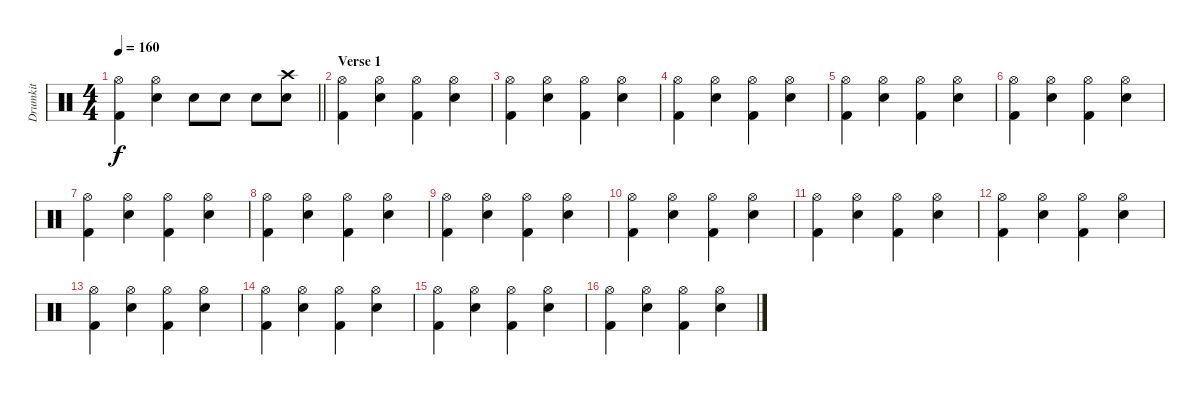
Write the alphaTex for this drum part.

\track ("Drumkit" "Drumkit") {instrument percussion}
\staff {score}
\articulation defaults
\ts (4 4)
\tempo 160
\clef neutral
\barLineRight lightlight
\ks c
("Hi-Hat (open)" "Kick (hit) 2").4{dy f} ("Hi-Hat (open)" "Electric Snare (hit)").4 "Electric Snare (hit)".8 "Electric Snare (hit)".8 "Electric Snare (hit)".8 ("Crash high (hit)" "Electric Snare (hit)").8 |
\section ("" "Verse 1")
("Hi-Hat (open)" "Kick (hit) 2").4 ("Hi-Hat (open)" "Electric Snare (hit)").4 ("Hi-Hat (open)" "Kick (hit) 2").4 ("Hi-Hat (open)" "Electric Snare (hit)").4 |
("Hi-Hat (open)" "Kick (hit) 2").4 ("Hi-Hat (open)" "Electric Snare (hit)").4 ("Hi-Hat (open)" "Kick (hit) 2").4 ("Hi-Hat (open)" "Electric Snare (hit)").4 |
("Hi-Hat (open)" "Kick (hit) 2").4 ("Hi-Hat (open)" "Electric Snare (hit)").4 ("Hi-Hat (open)" "Kick (hit) 2").4 ("Hi-Hat (open)" "Electric Snare (hit)").4 |
("Hi-Hat (open)" "Kick (hit) 2").4 ("Hi-Hat (open)" "Electric Snare (hit)").4 ("Hi-Hat (open)" "Kick (hit) 2").4 ("Hi-Hat (open)" "Electric Snare (hit)").4 |
("Hi-Hat (open)" "Kick (hit) 2").4 ("Hi-Hat (open)" "Electric Snare (hit)").4 ("Hi-Hat (open)" "Kick (hit) 2").4 ("Hi-Hat (open)" "Electric Snare (hit)").4 |
("Hi-Hat (open)" "Kick (hit) 2").4 ("Hi-Hat (open)" "Electric Snare (hit)").4 ("Hi-Hat (open)" "Kick (hit) 2").4 ("Hi-Hat (open)" "Electric Snare (hit)").4 |
("Hi-Hat (open)" "Kick (hit) 2").4 ("Hi-Hat (open)" "Electric Snare (hit)").4 ("Hi-Hat (open)" "Kick (hit) 2").4 ("Hi-Hat (open)" "Electric Snare (hit)").4 |
("Hi-Hat (open)" "Kick (hit) 2").4 ("Hi-Hat (open)" "Electric Snare (hit)").4 ("Hi-Hat (open)" "Kick (hit) 2").4 ("Hi-Hat (open)" "Electric Snare (hit)").4 |
("Hi-Hat (open)" "Kick (hit) 2").4 ("Hi-Hat (open)" "Electric Snare (hit)").4 ("Hi-Hat (open)" "Kick (hit) 2").4 ("Hi-Hat (open)" "Electric Snare (hit)").4 |
("Hi-Hat (open)" "Kick (hit) 2").4 ("Hi-Hat (open)" "Electric Snare (hit)").4 ("Hi-Hat (open)" "Kick (hit) 2").4 ("Hi-Hat (open)" "Electric Snare (hit)").4 |
("Hi-Hat (open)" "Kick (hit) 2").4 ("Hi-Hat (open)" "Electric Snare (hit)").4 ("Hi-Hat (open)" "Kick (hit) 2").4 ("Hi-Hat (open)" "Electric Snare (hit)").4 |
("Hi-Hat (open)" "Kick (hit) 2").4 ("Hi-Hat (open)" "Electric Snare (hit)").4 ("Hi-Hat (open)" "Kick (hit) 2").4 ("Hi-Hat (open)" "Electric Snare (hit)").4 |
("Hi-Hat (open)" "Kick (hit) 2").4 ("Hi-Hat (open)" "Electric Snare (hit)").4 ("Hi-Hat (open)" "Kick (hit) 2").4 ("Hi-Hat (open)" "Electric Snare (hit)").4 |
("Hi-Hat (open)" "Kick (hit) 2").4 ("Hi-Hat (open)" "Electric Snare (hit)").4 ("Hi-Hat (open)" "Kick (hit) 2").4 ("Hi-Hat (open)" "Electric Snare (hit)").4 |
("Hi-Hat (open)" "Kick (hit) 2").4 ("Hi-Hat (open)" "Electric Snare (hit)").4 ("Hi-Hat (open)" "Kick (hit) 2").4 ("Hi-Hat (open)" "Electric Snare (hit)").4
